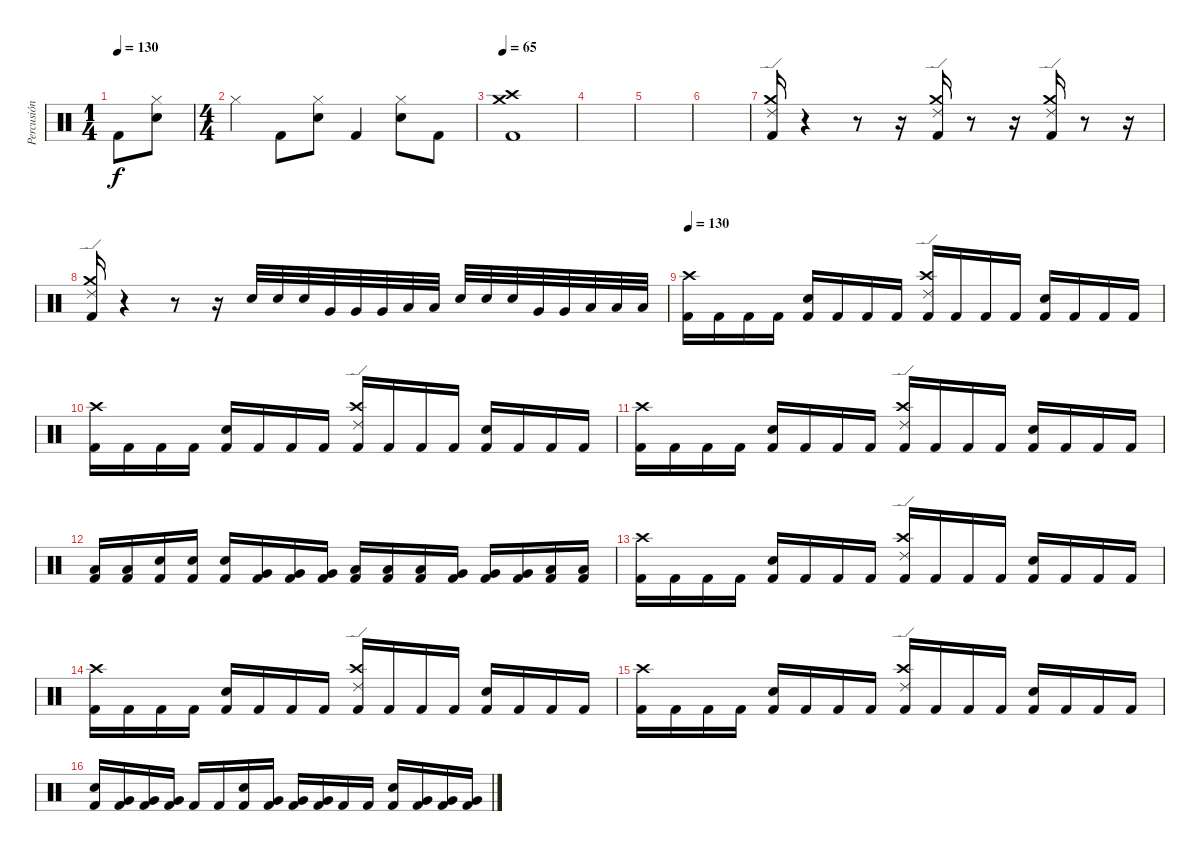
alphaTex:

\track ("Percusión" "Percusión") {instrument percussion}
\staff {score}
\articulation defaults
\ts (1 4)
\tempo 130
\clef neutral
\ks c "Kick (hit) 2".8{dy f}
("Hi-Hat (closed)" "Snare (hit) 2").8 |
\ts (4 4)
"Hi-Hat (closed)".4 "Kick (hit) 2".8 ("Hi-Hat (closed)" "Snare (hit) 2").8 "Kick (hit) 2".4 ("Hi-Hat (closed)" "Snare (hit) 2").8 "Kick (hit) 2".8 |
\tempo 65
("Crash high (hit)" "Crash medium (hit)" "Kick (hit) 2").1 |
|
|
|
("Ride (edge) 2" "Crash medium (hit)" "Kick (hit) 2").16 r.4 r.8 r.16 ("Ride (edge) 2" "Crash medium (hit)" "Kick (hit) 2").16 r.8 r.16 ("Ride (edge) 2" "Crash medium (hit)" "Kick (hit) 2").16 r.8 r.16 |
("Ride (edge) 2" "Crash medium (hit)" "Kick (hit) 2").16 r.4 r.8 r.16 "Snare (hit) 2".32 "Snare (hit) 2".32 "Snare (hit) 2".32 "Very Low Tom (hit)".32 "Very Low Tom (hit)".32 "Very Low Tom (hit)".32 "Low Floor Tom (hit)".32 "Low Floor Tom (hit)".32 "Snare (hit) 2".32 "Snare (hit) 2".32 "Snare (hit) 2".32 "Very Low Tom (hit)".32 "Very Low Tom (hit)".32 "Low Floor Tom (hit)".32 "Low Floor Tom (hit)".32 "Low Floor Tom (hit)".32 |
\tempo 130
("Crash high (hit)" "Kick (hit) 2").16 "Kick (hit) 2".16 "Kick (hit) 2".16 "Kick (hit) 2".16 ("Snare (hit) 2" "Kick (hit) 2").16 "Kick (hit) 2".16 "Kick (hit) 2".16 "Kick (hit) 2".16 ("Ride (edge) 2" "Crash high (hit)" "Kick (hit) 2").16 "Kick (hit) 2".16 "Kick (hit) 2".16 "Kick (hit) 2".16 ("Snare (hit) 2" "Kick (hit) 2").16 "Kick (hit) 2".16 "Kick (hit) 2".16 "Kick (hit) 2".16 |
("Crash high (hit)" "Kick (hit) 2").16 "Kick (hit) 2".16 "Kick (hit) 2".16 "Kick (hit) 2".16 ("Snare (hit) 2" "Kick (hit) 2").16 "Kick (hit) 2".16 "Kick (hit) 2".16 "Kick (hit) 2".16 ("Ride (edge) 2" "Crash high (hit)" "Kick (hit) 2").16 "Kick (hit) 2".16 "Kick (hit) 2".16 "Kick (hit) 2".16 ("Snare (hit) 2" "Kick (hit) 2").16 "Kick (hit) 2".16 "Kick (hit) 2".16 "Kick (hit) 2".16 |
("Crash high (hit)" "Kick (hit) 2").16 "Kick (hit) 2".16 "Kick (hit) 2".16 "Kick (hit) 2".16 ("Snare (hit) 2" "Kick (hit) 2").16 "Kick (hit) 2".16 "Kick (hit) 2".16 "Kick (hit) 2".16 ("Ride (edge) 2" "Crash high (hit)" "Kick (hit) 2").16 "Kick (hit) 2".16 "Kick (hit) 2".16 "Kick (hit) 2".16 ("Snare (hit) 2" "Kick (hit) 2").16 "Kick (hit) 2".16 "Kick (hit) 2".16 "Kick (hit) 2".16 |
("Low Floor Tom (hit)" "Kick (hit) 2").16 ("Low Floor Tom (hit)" "Kick (hit) 2").16 ("Snare (hit) 2" "Kick (hit) 2").16 ("Snare (hit) 2" "Kick (hit) 2").16 ("Snare (hit) 2" "Kick (hit) 2").16 ("Very Low Tom (hit)" "Kick (hit) 2").16 ("Very Low Tom (hit)" "Kick (hit) 2").16 ("Very Low Tom (hit)" "Kick (hit) 2").16 ("Low Tom (hit)" "Kick (hit) 2").16 ("Low Tom (hit)" "Kick (hit) 2").16 ("Low Tom (hit)" "Kick (hit) 2").16 ("Very Low Tom (hit)" "Kick (hit) 2").16 ("Very Low Tom (hit)" "Kick (hit) 2").16 ("Very Low Tom (hit)" "Kick (hit) 2").16 ("Low Floor Tom (hit)" "Kick (hit) 2").16 ("Low Floor Tom (hit)" "Kick (hit) 2").16 |
("Crash high (hit)" "Kick (hit) 2").16 "Kick (hit) 2".16 "Kick (hit) 2".16 "Kick (hit) 2".16 ("Snare (hit) 2" "Kick (hit) 2").16 "Kick (hit) 2".16 "Kick (hit) 2".16 "Kick (hit) 2".16 ("Ride (edge) 2" "Crash high (hit)" "Kick (hit) 2").16 "Kick (hit) 2".16 "Kick (hit) 2".16 "Kick (hit) 2".16 ("Snare (hit) 2" "Kick (hit) 2").16 "Kick (hit) 2".16 "Kick (hit) 2".16 "Kick (hit) 2".16 |
("Crash high (hit)" "Kick (hit) 2").16 "Kick (hit) 2".16 "Kick (hit) 2".16 "Kick (hit) 2".16 ("Snare (hit) 2" "Kick (hit) 2").16 "Kick (hit) 2".16 "Kick (hit) 2".16 "Kick (hit) 2".16 ("Ride (edge) 2" "Crash high (hit)" "Kick (hit) 2").16 "Kick (hit) 2".16 "Kick (hit) 2".16 "Kick (hit) 2".16 ("Snare (hit) 2" "Kick (hit) 2").16 "Kick (hit) 2".16 "Kick (hit) 2".16 "Kick (hit) 2".16 |
("Crash high (hit)" "Kick (hit) 2").16 "Kick (hit) 2".16 "Kick (hit) 2".16 "Kick (hit) 2".16 ("Snare (hit) 2" "Kick (hit) 2").16 "Kick (hit) 2".16 "Kick (hit) 2".16 "Kick (hit) 2".16 ("Ride (edge) 2" "Crash high (hit)" "Kick (hit) 2").16 "Kick (hit) 2".16 "Kick (hit) 2".16 "Kick (hit) 2".16 ("Snare (hit) 2" "Kick (hit) 2").16 "Kick (hit) 2".16 "Kick (hit) 2".16 "Kick (hit) 2".16 |
("Snare (hit) 2" "Kick (hit) 2").16 ("Very Low Tom (hit)" "Kick (hit) 2").16 ("Very Low Tom (hit)" "Kick (hit) 2").16 ("Very Low Tom (hit)" "Kick (hit) 2").16 "Kick (hit) 2".16 "Kick (hit) 2".16 ("Snare (hit) 2" "Kick (hit) 2").16 ("Very Low Tom (hit)" "Kick (hit) 2").16 ("Very Low Tom (hit)" "Kick (hit) 2").16 ("Very Low Tom (hit)" "Kick (hit) 2").16 "Kick (hit) 2".16 "Kick (hit) 2".16 ("Snare (hit) 2" "Kick (hit) 2").16 ("Very Low Tom (hit)" "Kick (hit) 2").16 ("Very Low Tom (hit)" "Kick (hit) 2").16 ("Very Low Tom (hit)" "Kick (hit) 2").16
